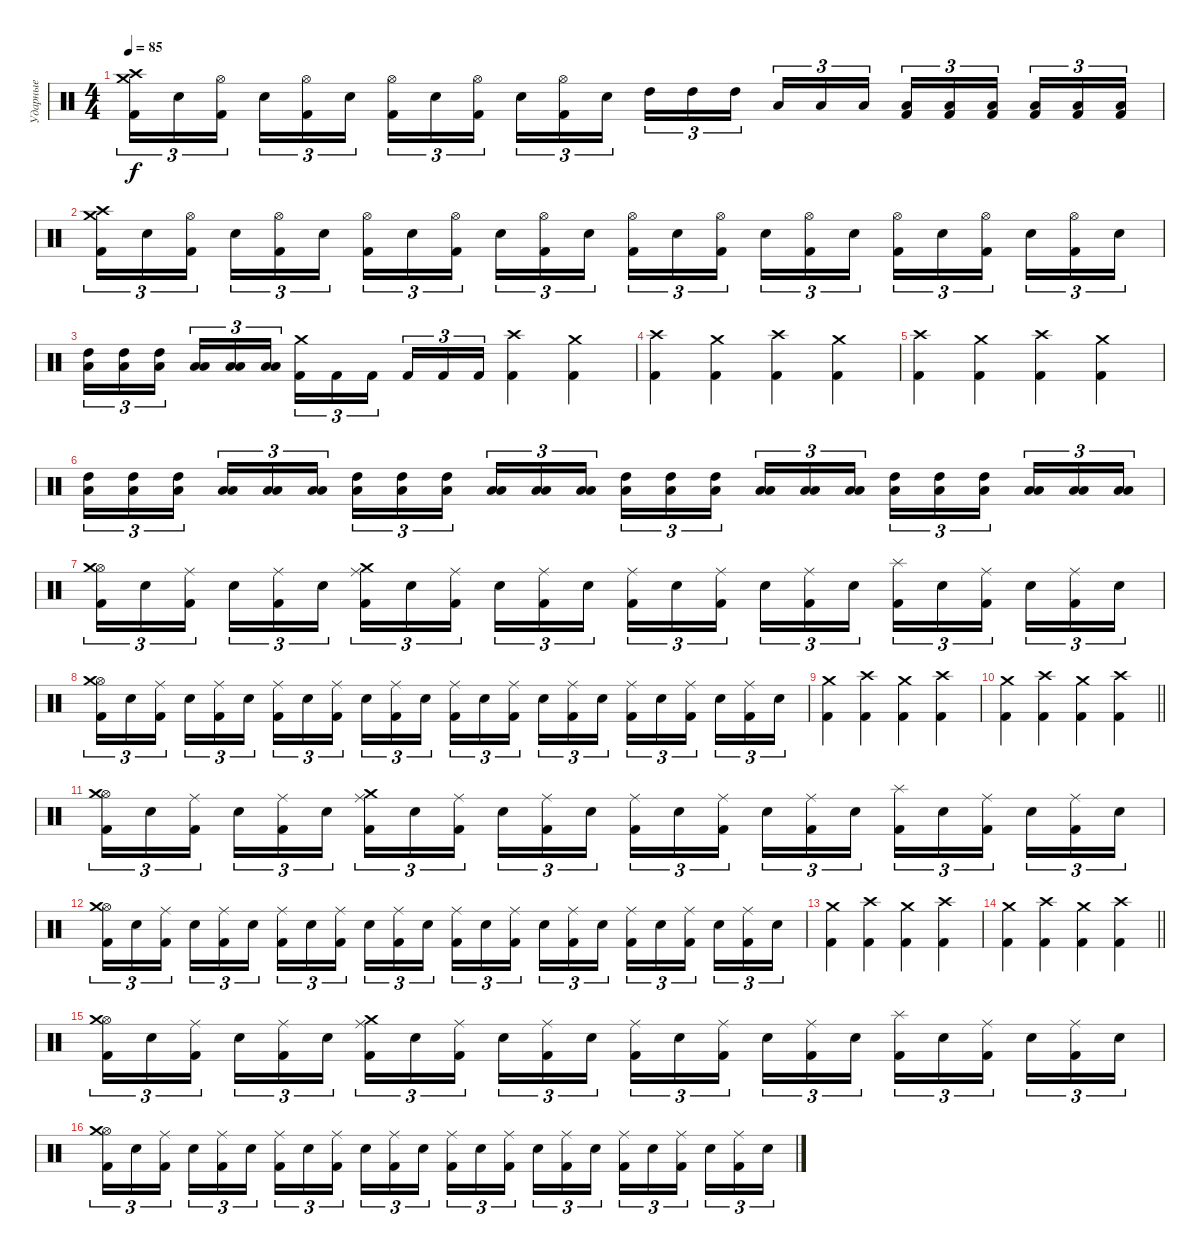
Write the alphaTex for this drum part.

\track ("Ударные" "Ударные") {mute instrument percussion}
\staff {score}
\articulation defaults
\ts (4 4)
\tempo 85
\clef neutral
\ks c
("Crash high (hit)" "Crash medium (hit)" "Kick (hit) 2").16{tu (3 2) dy f} "Electric Snare (hit)".16{tu (3 2)} ("Hi-Hat (open)" "Kick (hit) 2").16{tu (3 2) beam splitsecondary} "Electric Snare (hit)".16{tu (3 2)} ("Hi-Hat (open)" "Kick (hit) 2").16{tu (3 2)} "Electric Snare (hit)".16{tu (3 2)} ("Hi-Hat (open)" "Kick (hit) 2").16{tu (3 2)} "Electric Snare (hit)".16{tu (3 2)} ("Hi-Hat (open)" "Kick (hit) 2").16{tu (3 2) beam splitsecondary} "Electric Snare (hit)".16{tu (3 2)} ("Hi-Hat (open)" "Kick (hit) 2").16{tu (3 2)} "Electric Snare (hit)".16{tu (3 2)} "High Tom (hit)".16{tu (3 2)} "High Tom (hit)".16{tu (3 2)} "High Tom (hit)".16{tu (3 2) beam splitsecondary} "Low Tom (hit)".16{tu (3 2)} "Low Tom (hit)".16{tu (3 2)} "Low Tom (hit)".16{tu (3 2)} ("Low Floor Tom (hit)" "Kick (hit) 2").16{tu (3 2)} ("Low Floor Tom (hit)" "Kick (hit) 2").16{tu (3 2)} ("Low Floor Tom (hit)" "Kick (hit) 2").16{tu (3 2) beam splitsecondary} ("Low Floor Tom (hit)" "Kick (hit) 2").16{tu (3 2)} ("Low Floor Tom (hit)" "Kick (hit) 2").16{tu (3 2)} ("Low Floor Tom (hit)" "Kick (hit) 2").16{tu (3 2)} |
("Crash high (hit)" "Crash medium (hit)" "Kick (hit) 2").16{tu (3 2)} "Electric Snare (hit)".16{tu (3 2)} ("Hi-Hat (open)" "Kick (hit) 2").16{tu (3 2) beam splitsecondary} "Electric Snare (hit)".16{tu (3 2)} ("Hi-Hat (open)" "Kick (hit) 2").16{tu (3 2)} "Electric Snare (hit)".16{tu (3 2)} ("Hi-Hat (open)" "Kick (hit) 2").16{tu (3 2)} "Electric Snare (hit)".16{tu (3 2)} ("Hi-Hat (open)" "Kick (hit) 2").16{tu (3 2) beam splitsecondary} "Electric Snare (hit)".16{tu (3 2)} ("Hi-Hat (open)" "Kick (hit) 2").16{tu (3 2)} "Electric Snare (hit)".16{tu (3 2)} ("Hi-Hat (open)" "Kick (hit) 2").16{tu (3 2)} "Electric Snare (hit)".16{tu (3 2)} ("Hi-Hat (open)" "Kick (hit) 2").16{tu (3 2) beam splitsecondary} "Electric Snare (hit)".16{tu (3 2)} ("Hi-Hat (open)" "Kick (hit) 2").16{tu (3 2)} "Electric Snare (hit)".16{tu (3 2)} ("Hi-Hat (open)" "Kick (hit) 2").16{tu (3 2)} "Electric Snare (hit)".16{tu (3 2)} ("Hi-Hat (open)" "Kick (hit) 2").16{tu (3 2) beam splitsecondary} "Electric Snare (hit)".16{tu (3 2)} ("Hi-Hat (open)" "Kick (hit) 2").16{tu (3 2)} "Electric Snare (hit)".16{tu (3 2)} |
("High Tom (hit)" "Low Floor Tom (hit)").16{tu (3 2)} ("High Tom (hit)" "Low Floor Tom (hit)").16{tu (3 2)} ("High Tom (hit)" "Low Floor Tom (hit)").16{tu (3 2) beam splitsecondary} ("Low Tom (hit)" "Low Floor Tom (hit)").16{tu (3 2)} ("Low Tom (hit)" "Low Floor Tom (hit)").16{tu (3 2)} ("Low Tom (hit)" "Low Floor Tom (hit)").16{tu (3 2)} ("Crash medium (hit)" "Kick (hit) 2").16{tu (3 2)} "Kick (hit) 2".16{tu (3 2)} "Kick (hit) 2".16{tu (3 2) beam splitsecondary} "Kick (hit) 2".16{tu (3 2)} "Kick (hit) 2".16{tu (3 2)} "Kick (hit) 2".16{tu (3 2)} ("Crash high (hit)" "Kick (hit) 2").4 ("Crash medium (hit)" "Kick (hit) 2").4 |
("Crash high (hit)" "Kick (hit) 2").4 ("Crash medium (hit)" "Kick (hit) 2").4 ("Crash high (hit)" "Kick (hit) 2").4 ("Crash medium (hit)" "Kick (hit) 2").4 |
("Crash high (hit)" "Kick (hit) 2").4 ("Crash medium (hit)" "Kick (hit) 2").4 ("Crash high (hit)" "Kick (hit) 2").4 ("Crash medium (hit)" "Kick (hit) 2").4 |
("High Tom (hit)" "Low Floor Tom (hit)").16{tu (3 2)} ("High Tom (hit)" "Low Floor Tom (hit)").16{tu (3 2)} ("High Tom (hit)" "Low Floor Tom (hit)").16{tu (3 2) beam splitsecondary} ("Low Tom (hit)" "Low Floor Tom (hit)").16{tu (3 2)} ("Low Tom (hit)" "Low Floor Tom (hit)").16{tu (3 2)} ("Low Tom (hit)" "Low Floor Tom (hit)").16{tu (3 2)} ("High Tom (hit)" "Low Floor Tom (hit)").16{tu (3 2)} ("High Tom (hit)" "Low Floor Tom (hit)").16{tu (3 2)} ("High Tom (hit)" "Low Floor Tom (hit)").16{tu (3 2) beam splitsecondary} ("Low Tom (hit)" "Low Floor Tom (hit)").16{tu (3 2)} ("Low Tom (hit)" "Low Floor Tom (hit)").16{tu (3 2)} ("Low Tom (hit)" "Low Floor Tom (hit)").16{tu (3 2)} ("High Tom (hit)" "Low Floor Tom (hit)").16{tu (3 2)} ("High Tom (hit)" "Low Floor Tom (hit)").16{tu (3 2)} ("High Tom (hit)" "Low Floor Tom (hit)").16{tu (3 2) beam splitsecondary} ("Low Tom (hit)" "Low Floor Tom (hit)").16{tu (3 2)} ("Low Tom (hit)" "Low Floor Tom (hit)").16{tu (3 2)} ("Low Tom (hit)" "Low Floor Tom (hit)").16{tu (3 2)} ("High Tom (hit)" "Low Floor Tom (hit)").16{tu (3 2)} ("High Tom (hit)" "Low Floor Tom (hit)").16{tu (3 2)} ("High Tom (hit)" "Low Floor Tom (hit)").16{tu (3 2) beam splitsecondary} ("Low Tom (hit)" "Low Floor Tom (hit)").16{tu (3 2)} ("Low Tom (hit)" "Low Floor Tom (hit)").16{tu (3 2)} ("Low Tom (hit)" "Low Floor Tom (hit)").16{tu (3 2)} |
("Hi-Hat (open)" "Crash medium (hit)" "Kick (hit) 2").16{tu (3 2)} "Electric Snare (hit)".16{tu (3 2)} ("Ride (middle)" "Kick (hit) 2").16{tu (3 2) beam splitsecondary} "Electric Snare (hit)".16{tu (3 2)} ("Ride (middle)" "Kick (hit) 2").16{tu (3 2)} "Electric Snare (hit)".16{tu (3 2)} ("Ride (middle)" "Crash medium (hit)" "Kick (hit) 2").16{tu (3 2)} "Electric Snare (hit)".16{tu (3 2)} ("Ride (middle)" "Kick (hit) 2").16{tu (3 2) beam splitsecondary} "Electric Snare (hit)".16{tu (3 2)} ("Ride (middle)" "Kick (hit) 2").16{tu (3 2)} "Electric Snare (hit)".16{tu (3 2)} ("Ride (middle)" "Kick (hit) 2").16{tu (3 2)} "Electric Snare (hit)".16{tu (3 2)} ("Ride (middle)" "Kick (hit) 2").16{tu (3 2) beam splitsecondary} "Electric Snare (hit)".16{tu (3 2)} ("Ride (middle)" "Kick (hit) 2").16{tu (3 2)} "Electric Snare (hit)".16{tu (3 2)} ("Splash (hit)" "Kick (hit) 2").16{tu (3 2)} "Electric Snare (hit)".16{tu (3 2)} ("Ride (middle)" "Kick (hit) 2").16{tu (3 2) beam splitsecondary} "Electric Snare (hit)".16{tu (3 2)} ("Ride (middle)" "Kick (hit) 2").16{tu (3 2)} "Electric Snare (hit)".16{tu (3 2)} |
("Hi-Hat (open)" "Crash medium (hit)" "Kick (hit) 2").16{tu (3 2)} "Electric Snare (hit)".16{tu (3 2)} ("Ride (middle)" "Kick (hit) 2").16{tu (3 2) beam splitsecondary} "Electric Snare (hit)".16{tu (3 2)} ("Ride (middle)" "Kick (hit) 2").16{tu (3 2)} "Electric Snare (hit)".16{tu (3 2)} ("Ride (middle)" "Kick (hit) 2").16{tu (3 2)} "Electric Snare (hit)".16{tu (3 2)} ("Ride (middle)" "Kick (hit) 2").16{tu (3 2) beam splitsecondary} "Electric Snare (hit)".16{tu (3 2)} ("Ride (middle)" "Kick (hit) 2").16{tu (3 2)} "Electric Snare (hit)".16{tu (3 2)} ("Ride (middle)" "Kick (hit) 2").16{tu (3 2)} "Electric Snare (hit)".16{tu (3 2)} ("Ride (middle)" "Kick (hit) 2").16{tu (3 2) beam splitsecondary} "Electric Snare (hit)".16{tu (3 2)} ("Ride (middle)" "Kick (hit) 2").16{tu (3 2)} "Electric Snare (hit)".16{tu (3 2)} ("Ride (middle)" "Kick (hit) 2").16{tu (3 2)} "Electric Snare (hit)".16{tu (3 2)} ("Ride (middle)" "Kick (hit) 2").16{tu (3 2) beam splitsecondary} "Electric Snare (hit)".16{tu (3 2)} ("Ride (middle)" "Kick (hit) 2").16{tu (3 2)} "Electric Snare (hit)".16{tu (3 2)} |
("Crash medium (hit)" "Kick (hit) 2").4 ("Crash high (hit)" "Kick (hit) 2").4 ("Crash medium (hit)" "Kick (hit) 2").4 ("Crash high (hit)" "Kick (hit) 2").4 |
\barLineRight lightlight
("Crash medium (hit)" "Kick (hit) 2").4 ("Crash high (hit)" "Kick (hit) 2").4 ("Crash medium (hit)" "Kick (hit) 2").4 ("Crash high (hit)" "Kick (hit) 2").4 |
("Hi-Hat (open)" "Crash medium (hit)" "Kick (hit) 2").16{tu (3 2)} "Electric Snare (hit)".16{tu (3 2)} ("Ride (middle)" "Kick (hit) 2").16{tu (3 2) beam splitsecondary} "Electric Snare (hit)".16{tu (3 2)} ("Ride (middle)" "Kick (hit) 2").16{tu (3 2)} "Electric Snare (hit)".16{tu (3 2)} ("Ride (middle)" "Crash medium (hit)" "Kick (hit) 2").16{tu (3 2)} "Electric Snare (hit)".16{tu (3 2)} ("Ride (middle)" "Kick (hit) 2").16{tu (3 2) beam splitsecondary} "Electric Snare (hit)".16{tu (3 2)} ("Ride (middle)" "Kick (hit) 2").16{tu (3 2)} "Electric Snare (hit)".16{tu (3 2)} ("Ride (middle)" "Kick (hit) 2").16{tu (3 2)} "Electric Snare (hit)".16{tu (3 2)} ("Ride (middle)" "Kick (hit) 2").16{tu (3 2) beam splitsecondary} "Electric Snare (hit)".16{tu (3 2)} ("Ride (middle)" "Kick (hit) 2").16{tu (3 2)} "Electric Snare (hit)".16{tu (3 2)} ("Splash (hit)" "Kick (hit) 2").16{tu (3 2)} "Electric Snare (hit)".16{tu (3 2)} ("Ride (middle)" "Kick (hit) 2").16{tu (3 2) beam splitsecondary} "Electric Snare (hit)".16{tu (3 2)} ("Ride (middle)" "Kick (hit) 2").16{tu (3 2)} "Electric Snare (hit)".16{tu (3 2)} |
("Hi-Hat (open)" "Crash medium (hit)" "Kick (hit) 2").16{tu (3 2)} "Electric Snare (hit)".16{tu (3 2)} ("Ride (middle)" "Kick (hit) 2").16{tu (3 2) beam splitsecondary} "Electric Snare (hit)".16{tu (3 2)} ("Ride (middle)" "Kick (hit) 2").16{tu (3 2)} "Electric Snare (hit)".16{tu (3 2)} ("Ride (middle)" "Kick (hit) 2").16{tu (3 2)} "Electric Snare (hit)".16{tu (3 2)} ("Ride (middle)" "Kick (hit) 2").16{tu (3 2) beam splitsecondary} "Electric Snare (hit)".16{tu (3 2)} ("Ride (middle)" "Kick (hit) 2").16{tu (3 2)} "Electric Snare (hit)".16{tu (3 2)} ("Ride (middle)" "Kick (hit) 2").16{tu (3 2)} "Electric Snare (hit)".16{tu (3 2)} ("Ride (middle)" "Kick (hit) 2").16{tu (3 2) beam splitsecondary} "Electric Snare (hit)".16{tu (3 2)} ("Ride (middle)" "Kick (hit) 2").16{tu (3 2)} "Electric Snare (hit)".16{tu (3 2)} ("Ride (middle)" "Kick (hit) 2").16{tu (3 2)} "Electric Snare (hit)".16{tu (3 2)} ("Ride (middle)" "Kick (hit) 2").16{tu (3 2) beam splitsecondary} "Electric Snare (hit)".16{tu (3 2)} ("Ride (middle)" "Kick (hit) 2").16{tu (3 2)} "Electric Snare (hit)".16{tu (3 2)} |
("Crash medium (hit)" "Kick (hit) 2").4 ("Crash high (hit)" "Kick (hit) 2").4 ("Crash medium (hit)" "Kick (hit) 2").4 ("Crash high (hit)" "Kick (hit) 2").4 |
\barLineRight lightlight
("Crash medium (hit)" "Kick (hit) 2").4 ("Crash high (hit)" "Kick (hit) 2").4 ("Crash medium (hit)" "Kick (hit) 2").4 ("Crash high (hit)" "Kick (hit) 2").4 |
("Hi-Hat (open)" "Crash medium (hit)" "Kick (hit) 2").16{tu (3 2)} "Electric Snare (hit)".16{tu (3 2)} ("Ride (middle)" "Kick (hit) 2").16{tu (3 2) beam splitsecondary} "Electric Snare (hit)".16{tu (3 2)} ("Ride (middle)" "Kick (hit) 2").16{tu (3 2)} "Electric Snare (hit)".16{tu (3 2)} ("Ride (middle)" "Crash medium (hit)" "Kick (hit) 2").16{tu (3 2)} "Electric Snare (hit)".16{tu (3 2)} ("Ride (middle)" "Kick (hit) 2").16{tu (3 2) beam splitsecondary} "Electric Snare (hit)".16{tu (3 2)} ("Ride (middle)" "Kick (hit) 2").16{tu (3 2)} "Electric Snare (hit)".16{tu (3 2)} ("Ride (middle)" "Kick (hit) 2").16{tu (3 2)} "Electric Snare (hit)".16{tu (3 2)} ("Ride (middle)" "Kick (hit) 2").16{tu (3 2) beam splitsecondary} "Electric Snare (hit)".16{tu (3 2)} ("Ride (middle)" "Kick (hit) 2").16{tu (3 2)} "Electric Snare (hit)".16{tu (3 2)} ("Splash (hit)" "Kick (hit) 2").16{tu (3 2)} "Electric Snare (hit)".16{tu (3 2)} ("Ride (middle)" "Kick (hit) 2").16{tu (3 2) beam splitsecondary} "Electric Snare (hit)".16{tu (3 2)} ("Ride (middle)" "Kick (hit) 2").16{tu (3 2)} "Electric Snare (hit)".16{tu (3 2)} |
("Hi-Hat (open)" "Crash medium (hit)" "Kick (hit) 2").16{tu (3 2)} "Electric Snare (hit)".16{tu (3 2)} ("Ride (middle)" "Kick (hit) 2").16{tu (3 2) beam splitsecondary} "Electric Snare (hit)".16{tu (3 2)} ("Ride (middle)" "Kick (hit) 2").16{tu (3 2)} "Electric Snare (hit)".16{tu (3 2)} ("Ride (middle)" "Kick (hit) 2").16{tu (3 2)} "Electric Snare (hit)".16{tu (3 2)} ("Ride (middle)" "Kick (hit) 2").16{tu (3 2) beam splitsecondary} "Electric Snare (hit)".16{tu (3 2)} ("Ride (middle)" "Kick (hit) 2").16{tu (3 2)} "Electric Snare (hit)".16{tu (3 2)} ("Ride (middle)" "Kick (hit) 2").16{tu (3 2)} "Electric Snare (hit)".16{tu (3 2)} ("Ride (middle)" "Kick (hit) 2").16{tu (3 2) beam splitsecondary} "Electric Snare (hit)".16{tu (3 2)} ("Ride (middle)" "Kick (hit) 2").16{tu (3 2)} "Electric Snare (hit)".16{tu (3 2)} ("Ride (middle)" "Kick (hit) 2").16{tu (3 2)} "Electric Snare (hit)".16{tu (3 2)} ("Ride (middle)" "Kick (hit) 2").16{tu (3 2) beam splitsecondary} "Electric Snare (hit)".16{tu (3 2)} ("Ride (middle)" "Kick (hit) 2").16{tu (3 2)} "Electric Snare (hit)".16{tu (3 2)}
